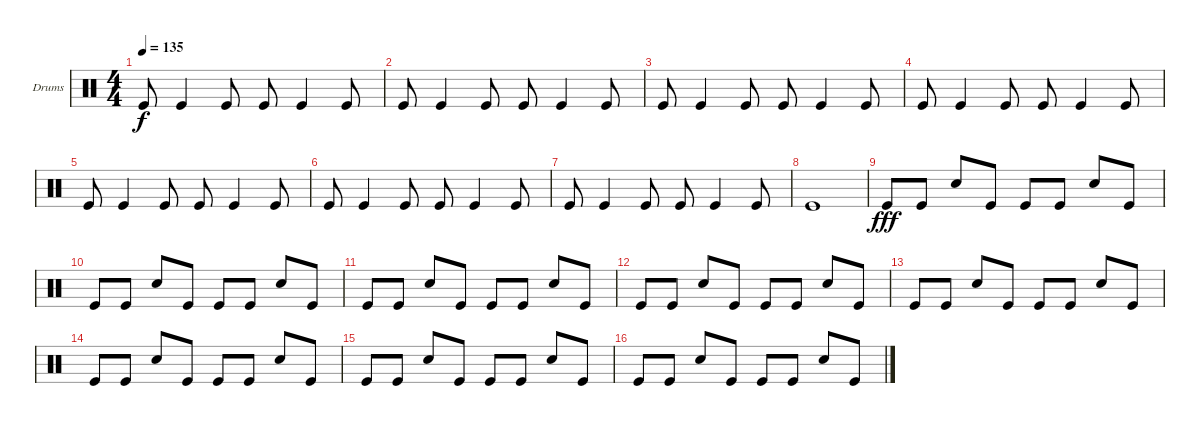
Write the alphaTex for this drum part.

\defaultSystemsLayout 4
\bracketExtendMode groupsimilarinstruments
\firstSystemTrackNameOrientation horizontal
\otherSystemsTrackNameOrientation horizontal
\track ("Helders" "Drums") {instrument percussion}
\staff {score}
\articulation defaults
\ts (4 4)
\tempo 135
\clef neutral
\ks c "Kick (hit)".8{dy f} "Kick (hit)".4 "Kick (hit)".8 "Kick (hit)".8 "Kick (hit)".4 "Kick (hit)".8
|
"Kick (hit)".8 "Kick (hit)".4 "Kick (hit)".8 "Kick (hit)".8 "Kick (hit)".4 "Kick (hit)".8 |
"Kick (hit)".8 "Kick (hit)".4 "Kick (hit)".8 "Kick (hit)".8 "Kick (hit)".4 "Kick (hit)".8 |
"Kick (hit)".8 "Kick (hit)".4 "Kick (hit)".8 "Kick (hit)".8 "Kick (hit)".4 "Kick (hit)".8 |
"Kick (hit)".8 "Kick (hit)".4 "Kick (hit)".8 "Kick (hit)".8 "Kick (hit)".4 "Kick (hit)".8 |
"Kick (hit)".8 "Kick (hit)".4 "Kick (hit)".8 "Kick (hit)".8 "Kick (hit)".4 "Kick (hit)".8 |
"Kick (hit)".8 "Kick (hit)".4 "Kick (hit)".8 "Kick (hit)".8 "Kick (hit)".4 "Kick (hit)".8 |
"Kick (hit)".1 |
"Kick (hit)".8{dy fff} "Kick (hit)".8 "Snare (hit) 2".8 "Kick (hit)".8 "Kick (hit)".8 "Kick (hit)".8 "Snare (hit) 2".8 "Kick (hit)".8 |
"Kick (hit)".8 "Kick (hit)".8 "Snare (hit) 2".8 "Kick (hit)".8 "Kick (hit)".8 "Kick (hit)".8 "Snare (hit) 2".8 "Kick (hit)".8 |
"Kick (hit)".8 "Kick (hit)".8 "Snare (hit) 2".8 "Kick (hit)".8 "Kick (hit)".8 "Kick (hit)".8 "Snare (hit) 2".8 "Kick (hit)".8 |
"Kick (hit)".8 "Kick (hit)".8 "Snare (hit) 2".8 "Kick (hit)".8 "Kick (hit)".8 "Kick (hit)".8 "Snare (hit) 2".8 "Kick (hit)".8 |
"Kick (hit)".8 "Kick (hit)".8 "Snare (hit) 2".8 "Kick (hit)".8 "Kick (hit)".8 "Kick (hit)".8 "Snare (hit) 2".8 "Kick (hit)".8 |
"Kick (hit)".8 "Kick (hit)".8 "Snare (hit) 2".8 "Kick (hit)".8 "Kick (hit)".8 "Kick (hit)".8 "Snare (hit) 2".8 "Kick (hit)".8 |
"Kick (hit)".8 "Kick (hit)".8 "Snare (hit) 2".8 "Kick (hit)".8 "Kick (hit)".8 "Kick (hit)".8 "Snare (hit) 2".8 "Kick (hit)".8 |
"Kick (hit)".8 "Kick (hit)".8 "Snare (hit) 2".8 "Kick (hit)".8 "Kick (hit)".8 "Kick (hit)".8 "Snare (hit) 2".8 "Kick (hit)".8
